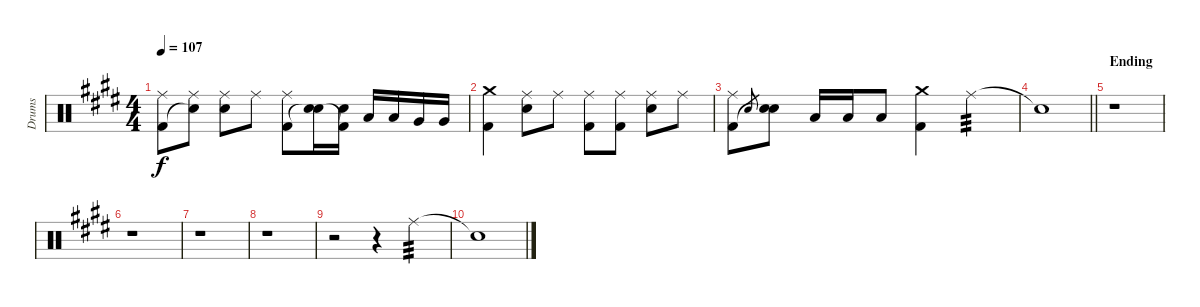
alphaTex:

\track ("Drums" "Drums") {instrument percussion}
\staff {score}
\articulation defaults
\ts (4 4)
\tempo 107
\clef neutral
\ks e
("Ride (middle)" "Kick (hit) 2").8{dy f} ("Ride (middle)" "Snare (hit)"{t}).8 ("Ride (middle)" "Electric Snare (hit)").8 "Ride (middle)".8 ("Ride (middle)" "Kick (hit) 2").8 ("Electric Snare (hit)" "Snare (hit)"{t}).16 ("Electric Snare (hit)" "Kick (hit) 2"{t}).16 "Low Tom (hit)".16 "Low Tom (hit)".16 "Very Low Tom (hit)".16 "Very Low Tom (hit)".16 |
("Crash medium (hit)" "Kick (hit) 2").4 ("Ride (middle)" "Electric Snare (hit)").8 "Ride (middle)".8 ("Ride (middle)" "Kick (hit) 2").8 ("Ride (middle)" "Kick (hit) 2").8 ("Ride (middle)" "Electric Snare (hit)").8 "Ride (middle)".8 |
("Ride (middle)" "Kick (hit) 2").8 "Electric Snare (hit)".8{gr} ("Electric Snare (hit)" "Snare (hit)"{t}).8 "Low Tom (hit)".16 "Low Tom (hit)".16 "Low Floor Tom (hit)".8 ("Crash medium (hit)" "Kick (hit) 2").4 "Ride (middle)".4{tp 3} |
\barLineRight lightlight "Snare (hit)"{t}.1
|
\section ("" "Ending")
r.1 |
r.1 |
r.1 |
r.1 |
r.2 r.4 "Ride (middle)".4{tp 3} |
"Snare (hit)"{t}.1
